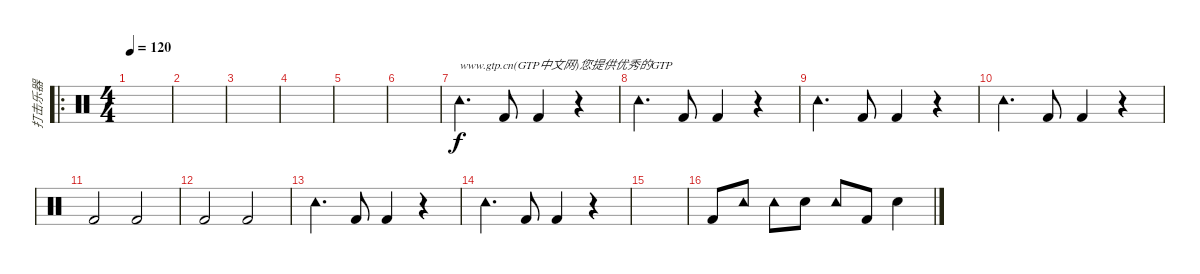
\track ("打击乐器" "打击乐器") {instrument percussion}
\staff {score}
\articulation defaults
\ro
\ts (4 4)
\tempo 120
\clef neutral
\ks c
|
|
|
|
|
|
"Tambourine (hit)".4{d txt "www.gtp.cn(GTP中文网)您提供优秀的GTP" volume 13} "Kick (hit) 2".8 "Kick (hit) 2".4 r.4 |
"Tambourine (hit)".4{d} "Kick (hit) 2".8 "Kick (hit) 2".4 r.4 |
"Tambourine (hit)".4{d} "Kick (hit) 2".8 "Kick (hit) 2".4 r.4 |
"Tambourine (hit)".4{d} "Kick (hit) 2".8 "Kick (hit) 2".4 r.4 |
"Kick (hit) 2".2 "Kick (hit) 2".2 |
"Kick (hit) 2".2 "Kick (hit) 2".2 |
"Tambourine (hit)".4{d} "Kick (hit) 2".8 "Kick (hit) 2".4 r.4 |
"Tambourine (hit)".4{d} "Kick (hit) 2".8 "Kick (hit) 2".4 r.4 |
|
"Kick (hit) 2".8 "Tambourine (hit)".8 "Tambourine (hit)".8 "Snare (hit) 2".8 "Tambourine (hit)".8 "Kick (hit) 2".8 "Snare (hit) 2".4
